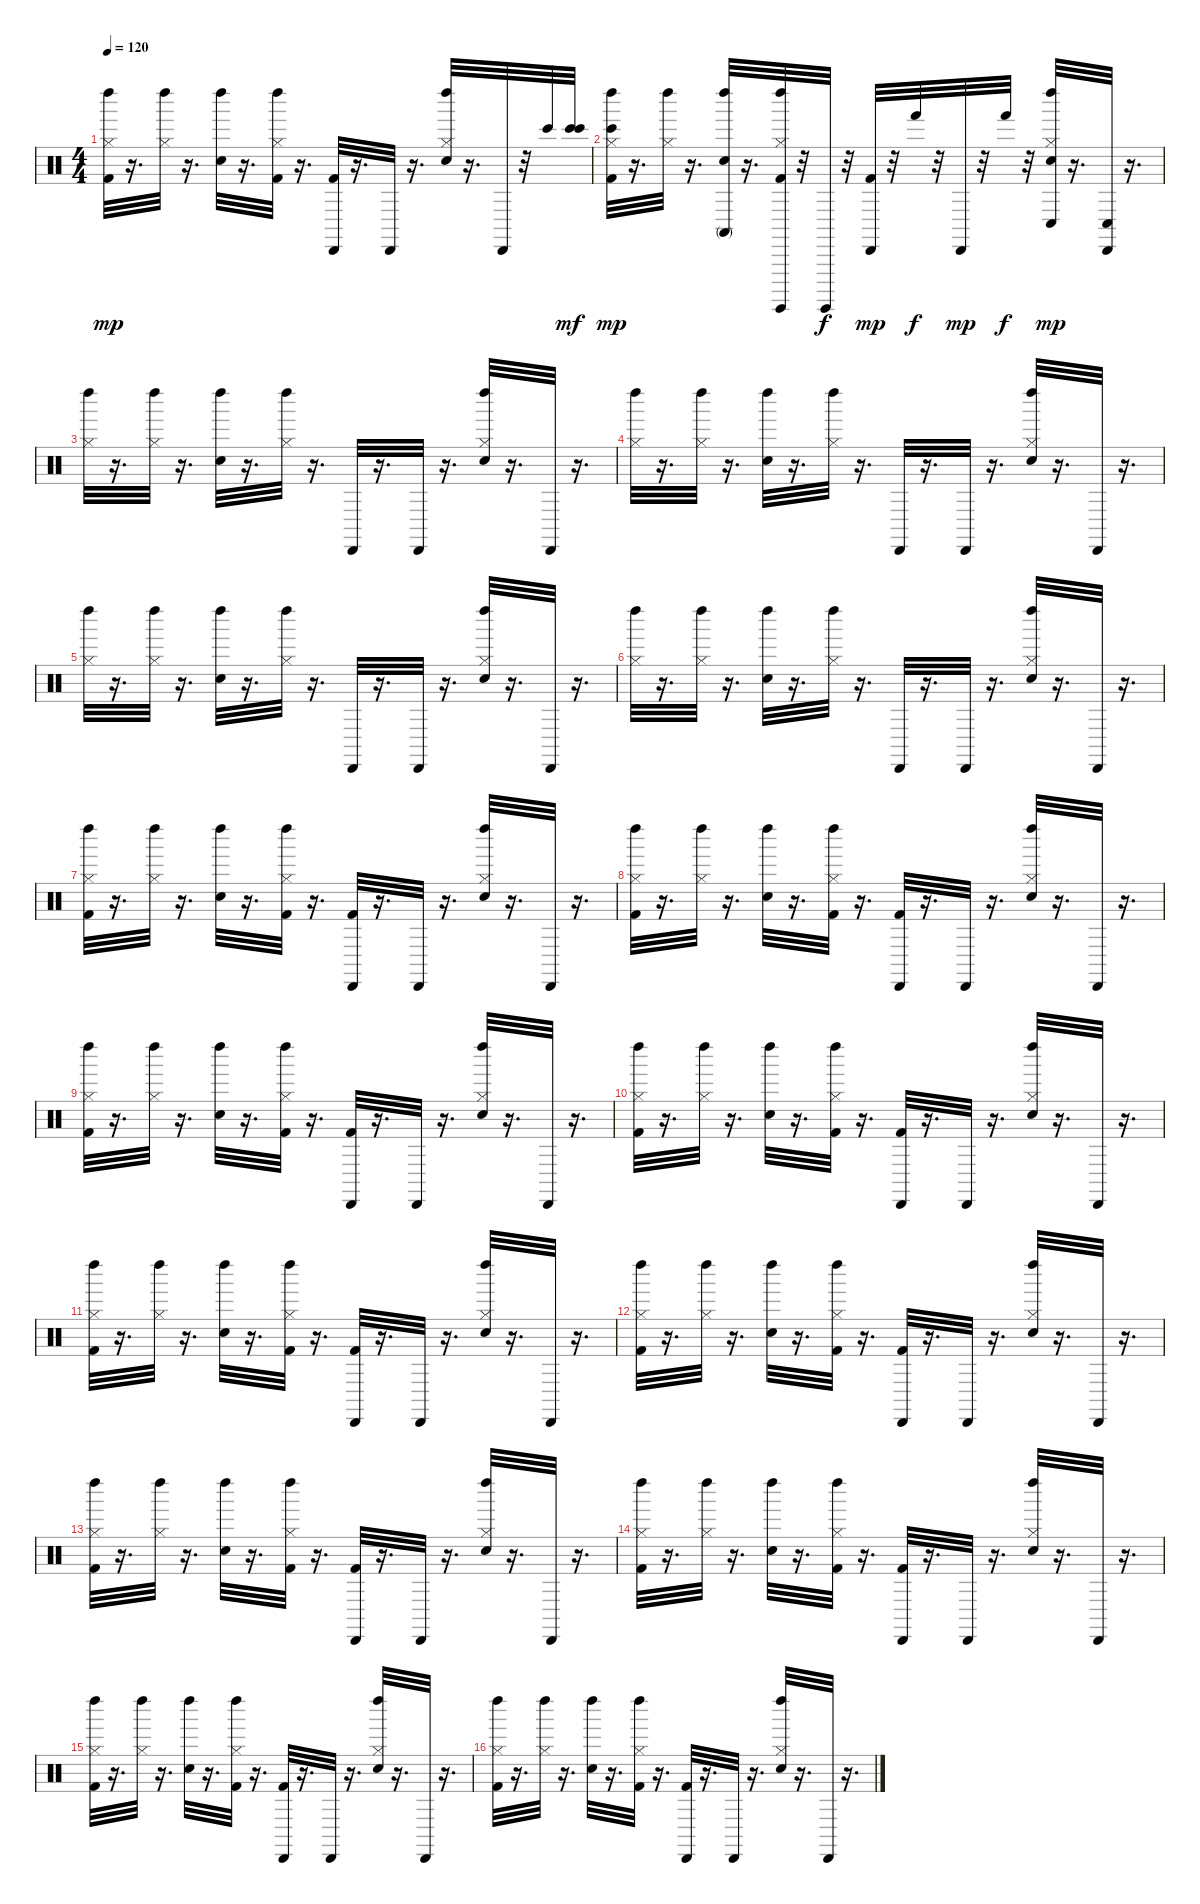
\track "" {instrument percussion}
\staff {score}
\articulation defaults
\ts (4 4)
\tempo 120
\clef neutral
\ks c
("Left Maraca (hit)" "Hi-Hat (closed)" "Kick (hit) 2").32{dy mp} r.16{d} ("Left Maraca (hit)" "Hi-Hat (closed)").32 r.16{d} ("Left Maraca (hit)" "Electric Snare (hit)").32 r.16{d} ("Kick (hit) 2" "Left Maraca (hit)" "Hi-Hat (closed)").32 r.16{d} ("Kick (hit) 2" "Cabasa (hit)").32 r.16{d} "Cabasa (hit)".32 r.16{d} ("Hi-Hat (closed)" "Left Maraca (hit)" "Electric Snare (hit)").32 r.16{d} "Cabasa (hit)".32 r.32 "Bongo High (hit)".32 ("Bongo High (hit)" "Bongo High (hit)").32{dy mf} |
("Left Maraca (hit)" "Hi-Hat (closed)" "Kick (hit) 2" "Bongo High (hit)").32{dy mp} r.16{d} ("Left Maraca (hit)" "Hi-Hat (closed)").32 r.16{d} ("Conga high (mute)" "Left Maraca (hit)" "Electric Snare (hit)").32 r.16{d} ("Surdo (hit)" "Kick (hit) 2" "Left Maraca (hit)" "Hi-Hat (closed)").32 r.32 "Surdo (hit)".32{dy f} r.32 ("Kick (hit) 2" "Cabasa (hit)").32{dy mp} r.32 "Hand (hit)".32{dy f} r.32 "Cabasa (hit)".32{dy mp} r.32 "Hand (hit)".32{dy f} r.32 ("Conga low (hit)" "Hi-Hat (closed)" "Left Maraca (hit)" "Electric Snare (hit)").32{dy mp} r.16{d} ("Conga low (hit)" "Cabasa (hit)").32 r.16{d} |
("Left Maraca (hit)" "Hi-Hat (closed)").32 r.16{d} ("Left Maraca (hit)" "Hi-Hat (closed)").32 r.16{d} ("Left Maraca (hit)" "Electric Snare (hit)").32 r.16{d} ("Left Maraca (hit)" "Hi-Hat (closed)").32 r.16{d} "Cabasa (hit)".32 r.16{d} "Cabasa (hit)".32 r.16{d} ("Hi-Hat (closed)" "Left Maraca (hit)" "Electric Snare (hit)").32 r.16{d} "Cabasa (hit)".32 r.16{d} |
("Left Maraca (hit)" "Hi-Hat (closed)").32 r.16{d} ("Left Maraca (hit)" "Hi-Hat (closed)").32 r.16{d} ("Left Maraca (hit)" "Electric Snare (hit)").32 r.16{d} ("Left Maraca (hit)" "Hi-Hat (closed)").32 r.16{d} "Cabasa (hit)".32 r.16{d} "Cabasa (hit)".32 r.16{d} ("Hi-Hat (closed)" "Left Maraca (hit)" "Electric Snare (hit)").32 r.16{d} "Cabasa (hit)".32 r.16{d} |
("Left Maraca (hit)" "Hi-Hat (closed)").32 r.16{d} ("Left Maraca (hit)" "Hi-Hat (closed)").32 r.16{d} ("Left Maraca (hit)" "Electric Snare (hit)").32 r.16{d} ("Left Maraca (hit)" "Hi-Hat (closed)").32 r.16{d} "Cabasa (hit)".32 r.16{d} "Cabasa (hit)".32 r.16{d} ("Hi-Hat (closed)" "Left Maraca (hit)" "Electric Snare (hit)").32 r.16{d} "Cabasa (hit)".32 r.16{d} |
("Left Maraca (hit)" "Hi-Hat (closed)").32 r.16{d} ("Left Maraca (hit)" "Hi-Hat (closed)").32 r.16{d} ("Left Maraca (hit)" "Electric Snare (hit)").32 r.16{d} ("Left Maraca (hit)" "Hi-Hat (closed)").32 r.16{d} "Cabasa (hit)".32 r.16{d} "Cabasa (hit)".32 r.16{d} ("Hi-Hat (closed)" "Left Maraca (hit)" "Electric Snare (hit)").32 r.16{d} "Cabasa (hit)".32 r.16{d} |
("Left Maraca (hit)" "Hi-Hat (closed)" "Kick (hit) 2").32 r.16{d} ("Left Maraca (hit)" "Hi-Hat (closed)").32 r.16{d} ("Left Maraca (hit)" "Electric Snare (hit)").32 r.16{d} ("Kick (hit) 2" "Left Maraca (hit)" "Hi-Hat (closed)").32 r.16{d} ("Kick (hit) 2" "Cabasa (hit)").32 r.16{d} "Cabasa (hit)".32 r.16{d} ("Hi-Hat (closed)" "Left Maraca (hit)" "Electric Snare (hit)").32 r.16{d} "Cabasa (hit)".32 r.16{d} |
("Left Maraca (hit)" "Hi-Hat (closed)" "Kick (hit) 2").32 r.16{d} ("Left Maraca (hit)" "Hi-Hat (closed)").32 r.16{d} ("Left Maraca (hit)" "Electric Snare (hit)").32 r.16{d} ("Kick (hit) 2" "Left Maraca (hit)" "Hi-Hat (closed)").32 r.16{d} ("Kick (hit) 2" "Cabasa (hit)").32 r.16{d} "Cabasa (hit)".32 r.16{d} ("Hi-Hat (closed)" "Left Maraca (hit)" "Electric Snare (hit)").32 r.16{d} "Cabasa (hit)".32 r.16{d} |
("Left Maraca (hit)" "Hi-Hat (closed)" "Kick (hit) 2").32 r.16{d} ("Left Maraca (hit)" "Hi-Hat (closed)").32 r.16{d} ("Left Maraca (hit)" "Electric Snare (hit)").32 r.16{d} ("Kick (hit) 2" "Left Maraca (hit)" "Hi-Hat (closed)").32 r.16{d} ("Kick (hit) 2" "Cabasa (hit)").32 r.16{d} "Cabasa (hit)".32 r.16{d} ("Hi-Hat (closed)" "Left Maraca (hit)" "Electric Snare (hit)").32 r.16{d} "Cabasa (hit)".32 r.16{d} |
("Left Maraca (hit)" "Hi-Hat (closed)" "Kick (hit) 2").32 r.16{d} ("Left Maraca (hit)" "Hi-Hat (closed)").32 r.16{d} ("Left Maraca (hit)" "Electric Snare (hit)").32 r.16{d} ("Kick (hit) 2" "Left Maraca (hit)" "Hi-Hat (closed)").32 r.16{d} ("Kick (hit) 2" "Cabasa (hit)").32 r.16{d} "Cabasa (hit)".32 r.16{d} ("Hi-Hat (closed)" "Left Maraca (hit)" "Electric Snare (hit)").32 r.16{d} "Cabasa (hit)".32 r.16{d} |
("Left Maraca (hit)" "Hi-Hat (closed)" "Kick (hit) 2").32 r.16{d} ("Left Maraca (hit)" "Hi-Hat (closed)").32 r.16{d} ("Left Maraca (hit)" "Electric Snare (hit)").32 r.16{d} ("Kick (hit) 2" "Left Maraca (hit)" "Hi-Hat (closed)").32 r.16{d} ("Kick (hit) 2" "Cabasa (hit)").32 r.16{d} "Cabasa (hit)".32 r.16{d} ("Hi-Hat (closed)" "Left Maraca (hit)" "Electric Snare (hit)").32 r.16{d} "Cabasa (hit)".32 r.16{d} |
("Left Maraca (hit)" "Hi-Hat (closed)" "Kick (hit) 2").32 r.16{d} ("Left Maraca (hit)" "Hi-Hat (closed)").32 r.16{d} ("Left Maraca (hit)" "Electric Snare (hit)").32 r.16{d} ("Kick (hit) 2" "Left Maraca (hit)" "Hi-Hat (closed)").32 r.16{d} ("Kick (hit) 2" "Cabasa (hit)").32 r.16{d} "Cabasa (hit)".32 r.16{d} ("Hi-Hat (closed)" "Left Maraca (hit)" "Electric Snare (hit)").32 r.16{d} "Cabasa (hit)".32 r.16{d} |
("Left Maraca (hit)" "Hi-Hat (closed)" "Kick (hit) 2").32 r.16{d} ("Left Maraca (hit)" "Hi-Hat (closed)").32 r.16{d} ("Left Maraca (hit)" "Electric Snare (hit)").32 r.16{d} ("Kick (hit) 2" "Left Maraca (hit)" "Hi-Hat (closed)").32 r.16{d} ("Kick (hit) 2" "Cabasa (hit)").32 r.16{d} "Cabasa (hit)".32 r.16{d} ("Hi-Hat (closed)" "Left Maraca (hit)" "Electric Snare (hit)").32 r.16{d} "Cabasa (hit)".32 r.16{d} |
("Left Maraca (hit)" "Hi-Hat (closed)" "Kick (hit) 2").32 r.16{d} ("Left Maraca (hit)" "Hi-Hat (closed)").32 r.16{d} ("Left Maraca (hit)" "Electric Snare (hit)").32 r.16{d} ("Kick (hit) 2" "Left Maraca (hit)" "Hi-Hat (closed)").32 r.16{d} ("Kick (hit) 2" "Cabasa (hit)").32 r.16{d} "Cabasa (hit)".32 r.16{d} ("Hi-Hat (closed)" "Left Maraca (hit)" "Electric Snare (hit)").32 r.16{d} "Cabasa (hit)".32 r.16{d} |
("Left Maraca (hit)" "Hi-Hat (closed)" "Kick (hit) 2").32 r.16{d} ("Left Maraca (hit)" "Hi-Hat (closed)").32 r.16{d} ("Left Maraca (hit)" "Electric Snare (hit)").32 r.16{d} ("Kick (hit) 2" "Left Maraca (hit)" "Hi-Hat (closed)").32 r.16{d} ("Kick (hit) 2" "Cabasa (hit)").32 r.16{d} "Cabasa (hit)".32 r.16{d} ("Hi-Hat (closed)" "Left Maraca (hit)" "Electric Snare (hit)").32 r.16{d} "Cabasa (hit)".32 r.16{d} |
("Left Maraca (hit)" "Hi-Hat (closed)" "Kick (hit) 2").32 r.16{d} ("Left Maraca (hit)" "Hi-Hat (closed)").32 r.16{d} ("Left Maraca (hit)" "Electric Snare (hit)").32 r.16{d} ("Kick (hit) 2" "Left Maraca (hit)" "Hi-Hat (closed)").32 r.16{d} ("Kick (hit) 2" "Cabasa (hit)").32 r.16{d} "Cabasa (hit)".32 r.16{d} ("Hi-Hat (closed)" "Left Maraca (hit)" "Electric Snare (hit)").32 r.16{d} "Cabasa (hit)".32 r.16{d}
